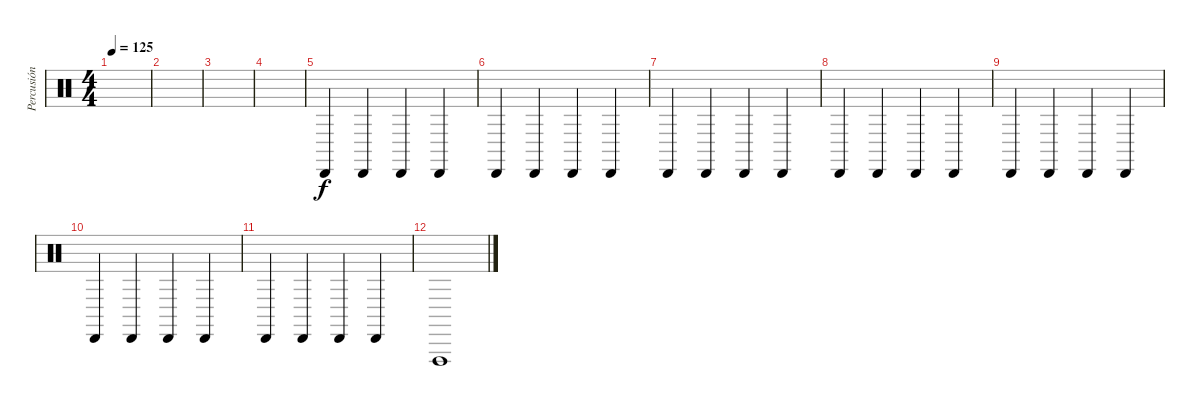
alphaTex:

\track ("Percusión" "Percusión") {instrument percussion}
\staff {score}
\articulation defaults
\ts (4 4)
\tempo 125
\clef neutral
\ks c
|
|
|
|
"Cabasa (hit)".4{volume 6} "Cabasa (hit)".4{volume 9} "Cabasa (hit)".4 "Cabasa (hit)".4 |
"Cabasa (hit)".4 "Cabasa (hit)".4 "Cabasa (hit)".4 "Cabasa (hit)".4 |
"Cabasa (hit)".4 "Cabasa (hit)".4 "Cabasa (hit)".4 "Cabasa (hit)".4 |
"Cabasa (hit)".4 "Cabasa (hit)".4 "Cabasa (hit)".4 "Cabasa (hit)".4 |
"Cabasa (hit)".4 "Cabasa (hit)".4 "Cabasa (hit)".4 "Cabasa (hit)".4 |
"Cabasa (hit)".4 "Cabasa (hit)".4 "Cabasa (hit)".4 "Cabasa (hit)".4 |
"Cabasa (hit)".4 "Cabasa (hit)".4 "Cabasa (hit)".4 "Cabasa (hit)".4 |
"Vibraslap (hit)".1
